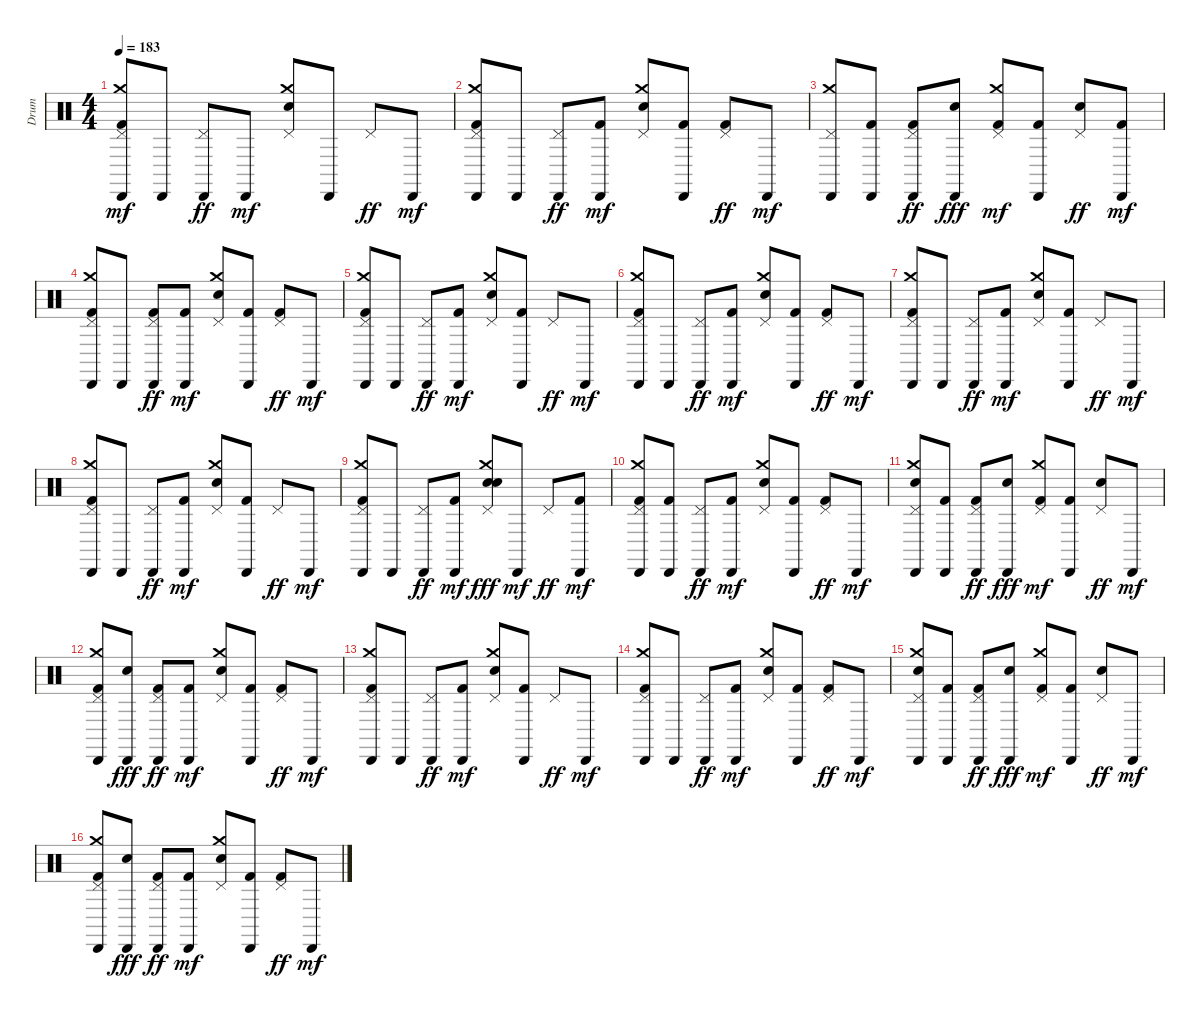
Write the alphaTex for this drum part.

\track ("Drum" "Drum") {instrument percussion}
\staff {score}
\articulation defaults
\ts (4 4)
\tempo 183
\clef neutral
\ks c
("Cabasa (hit)" "Kick (hit) 2" "Pedal Hi-Hat (hit)" "Crash medium (hit)").8{dy mf} "Cabasa (hit)".8 ("Cabasa (hit)" "Pedal Hi-Hat (hit)").8{dy ff} "Cabasa (hit)".8{dy mf} ("Electric Snare (hit)" "Pedal Hi-Hat (hit)" "Crash medium (hit)").8 "Cabasa (hit)".8 "Pedal Hi-Hat (hit)".8{dy ff} "Cabasa (hit)".8{dy mf} |
("Cabasa (hit)" "Kick (hit) 2" "Pedal Hi-Hat (hit)" "Crash medium (hit)").8 "Cabasa (hit)".8 ("Cabasa (hit)" "Pedal Hi-Hat (hit)").8{dy ff} ("Cabasa (hit)" "Kick (hit) 2").8{dy mf} ("Electric Snare (hit)" "Pedal Hi-Hat (hit)" "Crash medium (hit)").8 ("Cabasa (hit)" "Kick (hit) 2").8 ("Kick (hit) 2" "Pedal Hi-Hat (hit)").8{dy ff} "Cabasa (hit)".8{dy mf} |
("Cabasa (hit)" "Pedal Hi-Hat (hit)" "Crash medium (hit)").8 ("Cabasa (hit)" "Kick (hit) 2").8 ("Cabasa (hit)" "Kick (hit) 2" "Pedal Hi-Hat (hit)").8{dy ff} ("Cabasa (hit)" "Electric Snare (hit)").8{dy fff} ("Kick (hit) 2" "Pedal Hi-Hat (hit)" "Crash medium (hit)").8{dy mf} ("Cabasa (hit)" "Kick (hit) 2").8 ("Electric Snare (hit)" "Pedal Hi-Hat (hit)").8{dy ff} ("Cabasa (hit)" "Kick (hit) 2").8{dy mf} |
("Cabasa (hit)" "Kick (hit) 2" "Pedal Hi-Hat (hit)" "Crash medium (hit)").8 "Cabasa (hit)".8 ("Cabasa (hit)" "Kick (hit) 2" "Pedal Hi-Hat (hit)").8{dy ff} ("Cabasa (hit)" "Kick (hit) 2").8{dy mf} ("Electric Snare (hit)" "Pedal Hi-Hat (hit)" "Crash medium (hit)").8 ("Cabasa (hit)" "Kick (hit) 2").8 ("Kick (hit) 2" "Pedal Hi-Hat (hit)").8{dy ff} "Cabasa (hit)".8{dy mf} |
("Cabasa (hit)" "Kick (hit) 2" "Pedal Hi-Hat (hit)" "Crash medium (hit)").8 "Cabasa (hit)".8 ("Cabasa (hit)" "Pedal Hi-Hat (hit)").8{dy ff} ("Cabasa (hit)" "Kick (hit) 2").8{dy mf} ("Electric Snare (hit)" "Pedal Hi-Hat (hit)" "Crash medium (hit)").8 ("Cabasa (hit)" "Kick (hit) 2").8 "Pedal Hi-Hat (hit)".8{dy ff} "Cabasa (hit)".8{dy mf} |
("Cabasa (hit)" "Kick (hit) 2" "Pedal Hi-Hat (hit)" "Crash medium (hit)").8 "Cabasa (hit)".8 ("Cabasa (hit)" "Pedal Hi-Hat (hit)").8{dy ff} ("Cabasa (hit)" "Kick (hit) 2").8{dy mf} ("Electric Snare (hit)" "Pedal Hi-Hat (hit)" "Crash medium (hit)").8 ("Cabasa (hit)" "Kick (hit) 2").8 ("Kick (hit) 2" "Pedal Hi-Hat (hit)").8{dy ff} "Cabasa (hit)".8{dy mf} |
("Cabasa (hit)" "Kick (hit) 2" "Pedal Hi-Hat (hit)" "Crash medium (hit)").8 "Cabasa (hit)".8 ("Cabasa (hit)" "Pedal Hi-Hat (hit)").8{dy ff} ("Cabasa (hit)" "Kick (hit) 2").8{dy mf} ("Electric Snare (hit)" "Pedal Hi-Hat (hit)" "Crash medium (hit)").8 ("Cabasa (hit)" "Kick (hit) 2").8 "Pedal Hi-Hat (hit)".8{dy ff} "Cabasa (hit)".8{dy mf} |
("Cabasa (hit)" "Kick (hit) 2" "Pedal Hi-Hat (hit)" "Crash medium (hit)").8 "Cabasa (hit)".8 ("Cabasa (hit)" "Pedal Hi-Hat (hit)").8{dy ff} ("Cabasa (hit)" "Kick (hit) 2").8{dy mf} ("Electric Snare (hit)" "Pedal Hi-Hat (hit)" "Crash medium (hit)").8 ("Cabasa (hit)" "Kick (hit) 2").8 "Pedal Hi-Hat (hit)".8{dy ff} "Cabasa (hit)".8{dy mf} |
("Cabasa (hit)" "Kick (hit) 2" "Pedal Hi-Hat (hit)" "Crash medium (hit)").8 "Cabasa (hit)".8 ("Cabasa (hit)" "Pedal Hi-Hat (hit)").8{dy ff} ("Cabasa (hit)" "Kick (hit) 2").8{dy mf} ("Electric Snare (hit)" "Pedal Hi-Hat (hit)" "Crash medium (hit)" "Electric Snare (hit)").8{dy fff} "Cabasa (hit)".8{dy mf} "Pedal Hi-Hat (hit)".8{dy ff} ("Cabasa (hit)" "Kick (hit) 2").8{dy mf} |
("Cabasa (hit)" "Kick (hit) 2" "Pedal Hi-Hat (hit)" "Crash medium (hit)").8 ("Cabasa (hit)" "Kick (hit) 2").8 ("Cabasa (hit)" "Pedal Hi-Hat (hit)").8{dy ff} ("Cabasa (hit)" "Kick (hit) 2").8{dy mf} ("Electric Snare (hit)" "Pedal Hi-Hat (hit)" "Crash medium (hit)").8 ("Cabasa (hit)" "Kick (hit) 2").8 ("Kick (hit) 2" "Pedal Hi-Hat (hit)").8{dy ff} "Cabasa (hit)".8{dy mf} |
("Cabasa (hit)" "Electric Snare (hit)" "Pedal Hi-Hat (hit)" "Crash medium (hit)").8 ("Cabasa (hit)" "Kick (hit) 2").8 ("Cabasa (hit)" "Kick (hit) 2" "Pedal Hi-Hat (hit)").8{dy ff} ("Cabasa (hit)" "Electric Snare (hit)").8{dy fff} ("Kick (hit) 2" "Pedal Hi-Hat (hit)" "Crash medium (hit)").8{dy mf} ("Cabasa (hit)" "Kick (hit) 2").8 ("Electric Snare (hit)" "Pedal Hi-Hat (hit)").8{dy ff} "Cabasa (hit)".8{dy mf} |
("Cabasa (hit)" "Kick (hit) 2" "Pedal Hi-Hat (hit)" "Crash medium (hit)").8 ("Cabasa (hit)" "Electric Snare (hit)").8{dy fff} ("Cabasa (hit)" "Kick (hit) 2" "Pedal Hi-Hat (hit)").8{dy ff} ("Cabasa (hit)" "Kick (hit) 2").8{dy mf} ("Electric Snare (hit)" "Pedal Hi-Hat (hit)" "Crash medium (hit)").8 ("Cabasa (hit)" "Kick (hit) 2").8 ("Kick (hit) 2" "Pedal Hi-Hat (hit)").8{dy ff} "Cabasa (hit)".8{dy mf} |
("Cabasa (hit)" "Kick (hit) 2" "Pedal Hi-Hat (hit)" "Crash medium (hit)").8 "Cabasa (hit)".8 ("Cabasa (hit)" "Pedal Hi-Hat (hit)").8{dy ff} ("Cabasa (hit)" "Kick (hit) 2").8{dy mf} ("Electric Snare (hit)" "Pedal Hi-Hat (hit)" "Crash medium (hit)").8 ("Cabasa (hit)" "Kick (hit) 2").8 "Pedal Hi-Hat (hit)".8{dy ff} "Cabasa (hit)".8{dy mf} |
("Cabasa (hit)" "Kick (hit) 2" "Pedal Hi-Hat (hit)" "Crash medium (hit)").8 "Cabasa (hit)".8 ("Cabasa (hit)" "Pedal Hi-Hat (hit)").8{dy ff} ("Cabasa (hit)" "Kick (hit) 2").8{dy mf} ("Electric Snare (hit)" "Pedal Hi-Hat (hit)" "Crash medium (hit)").8 ("Cabasa (hit)" "Kick (hit) 2").8 ("Kick (hit) 2" "Pedal Hi-Hat (hit)").8{dy ff} "Cabasa (hit)".8{dy mf} |
("Cabasa (hit)" "Electric Snare (hit)" "Pedal Hi-Hat (hit)" "Crash medium (hit)").8 ("Cabasa (hit)" "Kick (hit) 2").8 ("Cabasa (hit)" "Kick (hit) 2" "Pedal Hi-Hat (hit)").8{dy ff} ("Cabasa (hit)" "Electric Snare (hit)").8{dy fff} ("Kick (hit) 2" "Pedal Hi-Hat (hit)" "Crash medium (hit)").8{dy mf} ("Cabasa (hit)" "Kick (hit) 2").8 ("Electric Snare (hit)" "Pedal Hi-Hat (hit)").8{dy ff} "Cabasa (hit)".8{dy mf} |
("Cabasa (hit)" "Kick (hit) 2" "Pedal Hi-Hat (hit)" "Crash medium (hit)").8 ("Cabasa (hit)" "Electric Snare (hit)").8{dy fff} ("Cabasa (hit)" "Kick (hit) 2" "Pedal Hi-Hat (hit)").8{dy ff} ("Cabasa (hit)" "Kick (hit) 2").8{dy mf} ("Electric Snare (hit)" "Pedal Hi-Hat (hit)" "Crash medium (hit)").8 ("Cabasa (hit)" "Kick (hit) 2").8 ("Kick (hit) 2" "Pedal Hi-Hat (hit)").8{dy ff} "Cabasa (hit)".8{dy mf}
